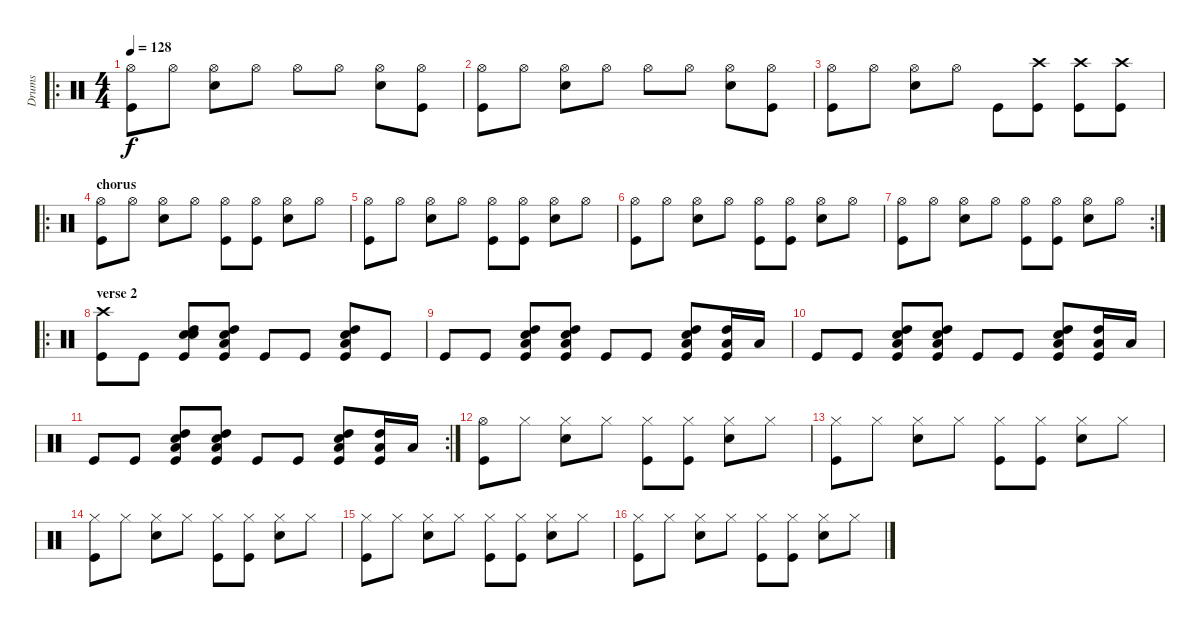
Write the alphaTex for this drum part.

\track ("Drums" "Drums") {instrument percussion}
\staff {score}
\articulation defaults
\ro
\ts (4 4)
\tempo 128
\clef neutral
\ks c
("Hi-Hat (open)" "Kick (hit)").8{dy f} "Hi-Hat (open)".8 ("Hi-Hat (open)" "Electric Snare (hit)").8 "Hi-Hat (open)".8 "Hi-Hat (open)".8 "Hi-Hat (open)".8 ("Hi-Hat (open)" "Electric Snare (hit)").8 ("Hi-Hat (open)" "Kick (hit)").8 |
("Hi-Hat (open)" "Kick (hit)").8 "Hi-Hat (open)".8 ("Hi-Hat (open)" "Electric Snare (hit)").8 "Hi-Hat (open)".8 "Hi-Hat (open)".8 "Hi-Hat (open)".8 ("Hi-Hat (open)" "Electric Snare (hit)").8 ("Hi-Hat (open)" "Kick (hit)").8 |
("Hi-Hat (open)" "Kick (hit)").8 "Hi-Hat (open)".8 ("Hi-Hat (open)" "Electric Snare (hit)").8 "Hi-Hat (open)".8 "Kick (hit)".8 ("Crash high (hit)" "Kick (hit)").8 ("Crash high (hit)" "Kick (hit)").8 ("Crash high (hit)" "Kick (hit)").8 |
\ro
\section ("" "chorus")
("Hi-Hat (open)" "Kick (hit)").8 "Hi-Hat (open)".8 ("Hi-Hat (open)" "Electric Snare (hit)").8 "Hi-Hat (open)".8 ("Hi-Hat (open)" "Kick (hit)").8 ("Hi-Hat (open)" "Kick (hit)").8 ("Hi-Hat (open)" "Electric Snare (hit)").8 "Hi-Hat (open)".8 |
("Hi-Hat (open)" "Kick (hit)").8 "Hi-Hat (open)".8 ("Hi-Hat (open)" "Electric Snare (hit)").8 "Hi-Hat (open)".8 ("Hi-Hat (open)" "Kick (hit)").8 ("Hi-Hat (open)" "Kick (hit)").8 ("Hi-Hat (open)" "Electric Snare (hit)").8 "Hi-Hat (open)".8 |
("Hi-Hat (open)" "Kick (hit)").8 "Hi-Hat (open)".8 ("Hi-Hat (open)" "Electric Snare (hit)").8 "Hi-Hat (open)".8 ("Hi-Hat (open)" "Kick (hit)").8 ("Hi-Hat (open)" "Kick (hit)").8 ("Hi-Hat (open)" "Electric Snare (hit)").8 "Hi-Hat (open)".8 |
\rc 2
("Hi-Hat (open)" "Kick (hit)").8 "Hi-Hat (open)".8 ("Hi-Hat (open)" "Electric Snare (hit)").8 "Hi-Hat (open)".8 ("Hi-Hat (open)" "Kick (hit)").8 ("Hi-Hat (open)" "Kick (hit)").8 ("Hi-Hat (open)" "Electric Snare (hit)").8 "Hi-Hat (open)".8 |
\ro
\section ("" "verse 2")
("Crash high (hit)" "Kick (hit)").8 "Kick (hit)".8 ("High Tom (hit)" "Snare (hit)" "Electric Snare (hit)" "Kick (hit)").8 ("High Tom (hit)" "Low Tom (hit)" "Electric Snare (hit)" "Kick (hit)").8 "Kick (hit)".8 "Kick (hit)".8 ("High Tom (hit)" "Low Tom (hit)" "Electric Snare (hit)" "Kick (hit)").8 "Kick (hit)".8 |
"Kick (hit)".8 "Kick (hit)".8 ("High Tom (hit)" "Low Tom (hit)" "Electric Snare (hit)" "Kick (hit)").8 ("High Tom (hit)" "Low Tom (hit)" "Electric Snare (hit)" "Kick (hit)").8 "Kick (hit)".8 "Kick (hit)".8 ("High Tom (hit)" "Low Tom (hit)" "Electric Snare (hit)" "Kick (hit)").8 ("High Tom (hit)" "Low Tom (hit)" "Kick (hit)").16 "Low Tom (hit)".16 |
"Kick (hit)".8 "Kick (hit)".8 ("High Tom (hit)" "Low Tom (hit)" "Electric Snare (hit)" "Kick (hit)").8 ("High Tom (hit)" "Low Tom (hit)" "Electric Snare (hit)" "Kick (hit)").8 "Kick (hit)".8 "Kick (hit)".8 ("High Tom (hit)" "Low Tom (hit)" "Electric Snare (hit)" "Kick (hit)").8 ("High Tom (hit)" "Low Tom (hit)" "Kick (hit)").16 "Low Tom (hit)".16 |
\rc 2 "Kick (hit)".8 "Kick (hit)".8
("High Tom (hit)" "Low Tom (hit)" "Electric Snare (hit)" "Kick (hit)").8 ("High Tom (hit)" "Low Tom (hit)" "Electric Snare (hit)" "Kick (hit)").8 "Kick (hit)".8 "Kick (hit)".8 ("High Tom (hit)" "Low Tom (hit)" "Electric Snare (hit)" "Kick (hit)").8 ("High Tom (hit)" "Low Tom (hit)" "Kick (hit)").16 "Low Tom (hit)".16 |
("Hi-Hat (open)" "Kick (hit)").8 "Hi-Hat (closed)".8 ("Hi-Hat (closed)" "Electric Snare (hit)").8 "Hi-Hat (closed)".8 ("Hi-Hat (closed)" "Kick (hit)").8 ("Hi-Hat (closed)" "Kick (hit)").8 ("Hi-Hat (closed)" "Electric Snare (hit)").8 "Hi-Hat (closed)".8 |
("Hi-Hat (closed)" "Kick (hit)").8 "Hi-Hat (closed)".8 ("Hi-Hat (closed)" "Electric Snare (hit)").8 "Hi-Hat (closed)".8 ("Hi-Hat (closed)" "Kick (hit)").8 ("Hi-Hat (closed)" "Kick (hit)").8 ("Hi-Hat (closed)" "Electric Snare (hit)").8 "Hi-Hat (closed)".8 |
("Hi-Hat (closed)" "Kick (hit)").8 "Hi-Hat (closed)".8 ("Hi-Hat (closed)" "Electric Snare (hit)").8 "Hi-Hat (closed)".8 ("Hi-Hat (closed)" "Kick (hit)").8 ("Hi-Hat (closed)" "Kick (hit)").8 ("Hi-Hat (closed)" "Electric Snare (hit)").8 "Hi-Hat (closed)".8 |
("Hi-Hat (closed)" "Kick (hit)").8 "Hi-Hat (closed)".8 ("Hi-Hat (closed)" "Electric Snare (hit)").8 "Hi-Hat (closed)".8 ("Hi-Hat (closed)" "Kick (hit)").8 ("Hi-Hat (closed)" "Kick (hit)").8 ("Hi-Hat (closed)" "Electric Snare (hit)").8 "Hi-Hat (closed)".8 |
("Hi-Hat (closed)" "Kick (hit)").8 "Hi-Hat (closed)".8 ("Hi-Hat (closed)" "Electric Snare (hit)").8 "Hi-Hat (closed)".8 ("Hi-Hat (closed)" "Kick (hit)").8 ("Hi-Hat (closed)" "Kick (hit)").8 ("Hi-Hat (closed)" "Electric Snare (hit)").8 "Hi-Hat (closed)".8
